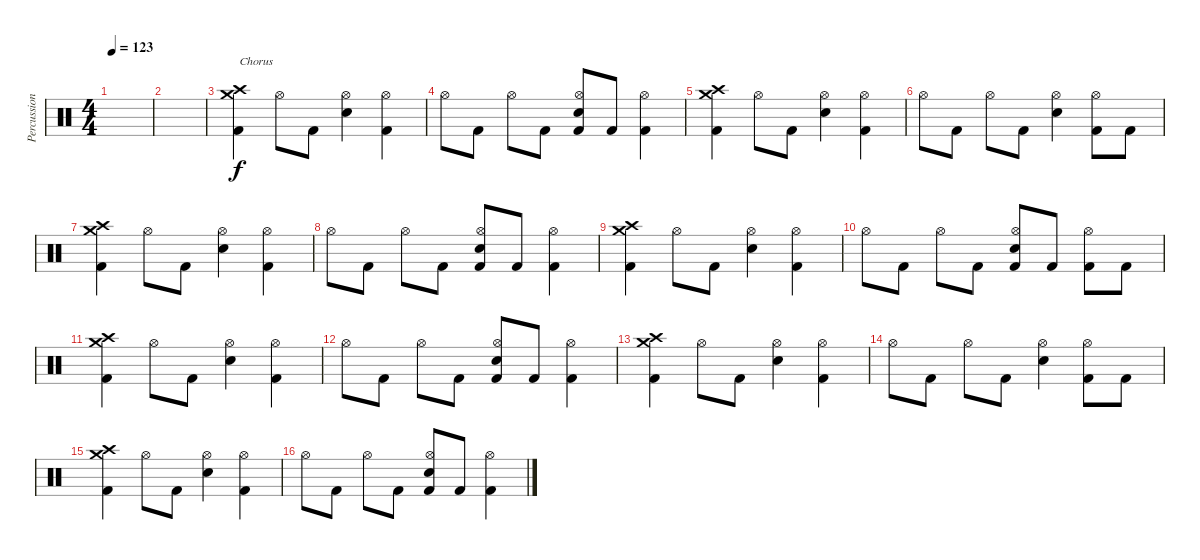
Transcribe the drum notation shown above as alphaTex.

\track ("Percussion" "Percussion") {instrument percussion}
\staff {score}
\articulation defaults
\ts (4 4)
\tempo 123
\clef neutral
\ks c
|
|
("Crash high (hit)" "Crash medium (hit)" "Kick (hit) 2").4{txt "Chorus"} "Hi-Hat (open)".8 "Kick (hit) 2".8 ("Hi-Hat (open)" "Electric Snare (hit)").4 ("Hi-Hat (open)" "Kick (hit) 2").4 |
"Hi-Hat (open)".8 "Kick (hit) 2".8 "Hi-Hat (open)".8 "Kick (hit) 2".8 ("Hi-Hat (open)" "Electric Snare (hit)" "Kick (hit) 2").8 "Kick (hit) 2".8 ("Hi-Hat (open)" "Kick (hit) 2").4 |
("Crash high (hit)" "Crash medium (hit)" "Kick (hit) 2").4 "Hi-Hat (open)".8 "Kick (hit) 2".8 ("Hi-Hat (open)" "Electric Snare (hit)").4 ("Hi-Hat (open)" "Kick (hit) 2").4 |
"Hi-Hat (open)".8 "Kick (hit) 2".8 "Hi-Hat (open)".8 "Kick (hit) 2".8 ("Hi-Hat (open)" "Electric Snare (hit)").4 ("Hi-Hat (open)" "Kick (hit) 2").8 "Kick (hit) 2".8 |
("Crash high (hit)" "Crash medium (hit)" "Kick (hit) 2").4 "Hi-Hat (open)".8 "Kick (hit) 2".8 ("Hi-Hat (open)" "Electric Snare (hit)").4 ("Hi-Hat (open)" "Kick (hit) 2").4 |
"Hi-Hat (open)".8 "Kick (hit) 2".8 "Hi-Hat (open)".8 "Kick (hit) 2".8 ("Hi-Hat (open)" "Electric Snare (hit)" "Kick (hit) 2").8 "Kick (hit) 2".8 ("Hi-Hat (open)" "Kick (hit) 2").4 |
("Crash high (hit)" "Crash medium (hit)" "Kick (hit) 2").4 "Hi-Hat (open)".8 "Kick (hit) 2".8 ("Hi-Hat (open)" "Electric Snare (hit)").4 ("Hi-Hat (open)" "Kick (hit) 2").4 |
"Hi-Hat (open)".8 "Kick (hit) 2".8 "Hi-Hat (open)".8 "Kick (hit) 2".8 ("Hi-Hat (open)" "Electric Snare (hit)" "Kick (hit) 2").8 "Kick (hit) 2".8 ("Hi-Hat (open)" "Kick (hit) 2").8 "Kick (hit) 2".8 |
("Crash high (hit)" "Crash medium (hit)" "Kick (hit) 2").4 "Hi-Hat (open)".8 "Kick (hit) 2".8 ("Hi-Hat (open)" "Electric Snare (hit)").4 ("Hi-Hat (open)" "Kick (hit) 2").4 |
"Hi-Hat (open)".8 "Kick (hit) 2".8 "Hi-Hat (open)".8 "Kick (hit) 2".8 ("Hi-Hat (open)" "Electric Snare (hit)" "Kick (hit) 2").8 "Kick (hit) 2".8 ("Hi-Hat (open)" "Kick (hit) 2").4 |
("Crash high (hit)" "Crash medium (hit)" "Kick (hit) 2").4 "Hi-Hat (open)".8 "Kick (hit) 2".8 ("Hi-Hat (open)" "Electric Snare (hit)").4 ("Hi-Hat (open)" "Kick (hit) 2").4 |
"Hi-Hat (open)".8 "Kick (hit) 2".8 "Hi-Hat (open)".8 "Kick (hit) 2".8 ("Hi-Hat (open)" "Electric Snare (hit)").4 ("Hi-Hat (open)" "Kick (hit) 2").8 "Kick (hit) 2".8 |
("Crash high (hit)" "Crash medium (hit)" "Kick (hit) 2").4 "Hi-Hat (open)".8 "Kick (hit) 2".8 ("Hi-Hat (open)" "Electric Snare (hit)").4 ("Hi-Hat (open)" "Kick (hit) 2").4 |
"Hi-Hat (open)".8 "Kick (hit) 2".8 "Hi-Hat (open)".8 "Kick (hit) 2".8 ("Hi-Hat (open)" "Electric Snare (hit)" "Kick (hit) 2").8 "Kick (hit) 2".8 ("Hi-Hat (open)" "Kick (hit) 2").4
